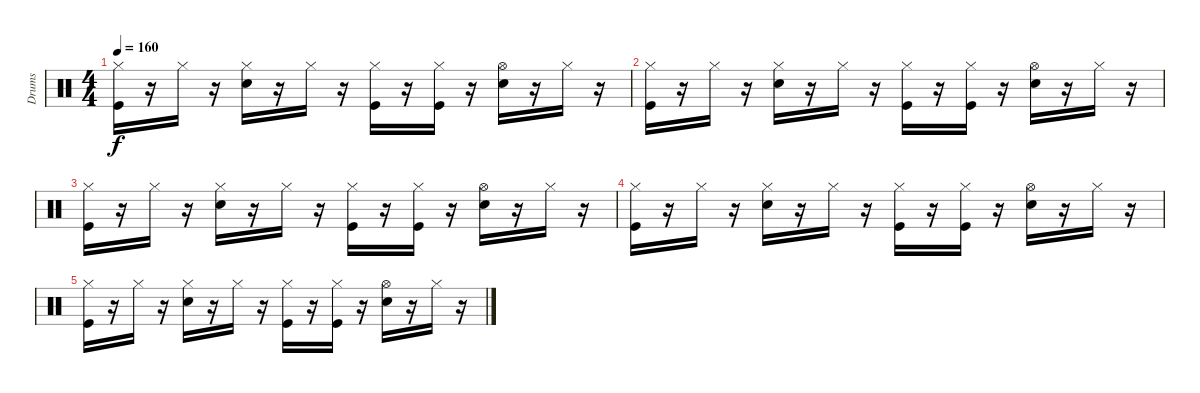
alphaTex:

\track ("Drums" "Drums") {instrument percussion}
\staff {score}
\articulation defaults
\ts (4 4)
\tempo 160
\clef neutral
\ks c
("Hi-Hat (closed)" "Kick (hit)").16{dy f} r.16 "Hi-Hat (closed)".16 r.16 ("Hi-Hat (closed)" "Snare (hit) 2").16 r.16 "Hi-Hat (closed)".16 r.16 ("Hi-Hat (closed)" "Kick (hit)").16 r.16 ("Kick (hit)" "Hi-Hat (closed)").16 r.16 ("Hi-Hat (open)" "Snare (hit) 2").16 r.16 "Hi-Hat (closed)".16 r.16 |
("Hi-Hat (closed)" "Kick (hit)").16{volume 4} r.16 "Hi-Hat (closed)".16 r.16 ("Hi-Hat (closed)" "Snare (hit) 2").16 r.16 "Hi-Hat (closed)".16 r.16 ("Hi-Hat (closed)" "Kick (hit)").16 r.16 ("Kick (hit)" "Hi-Hat (closed)").16 r.16 ("Hi-Hat (open)" "Snare (hit) 2").16 r.16 "Hi-Hat (closed)".16 r.16 |
("Hi-Hat (closed)" "Kick (hit)").16 r.16 "Hi-Hat (closed)".16 r.16 ("Hi-Hat (closed)" "Snare (hit) 2").16 r.16 "Hi-Hat (closed)".16 r.16 ("Hi-Hat (closed)" "Kick (hit)").16 r.16 ("Kick (hit)" "Hi-Hat (closed)").16 r.16 ("Hi-Hat (open)" "Snare (hit) 2").16 r.16 "Hi-Hat (closed)".16 r.16 |
("Hi-Hat (closed)" "Kick (hit)").16{volume 2} r.16 "Hi-Hat (closed)".16 r.16 ("Hi-Hat (closed)" "Snare (hit) 2").16 r.16 "Hi-Hat (closed)".16 r.16 ("Hi-Hat (closed)" "Kick (hit)").16 r.16 ("Kick (hit)" "Hi-Hat (closed)").16 r.16 ("Hi-Hat (open)" "Snare (hit) 2").16 r.16 "Hi-Hat (closed)".16 r.16 |
("Hi-Hat (closed)" "Kick (hit)").16 r.16 "Hi-Hat (closed)".16 r.16 ("Hi-Hat (closed)" "Snare (hit) 2").16 r.16 "Hi-Hat (closed)".16 r.16 ("Hi-Hat (closed)" "Kick (hit)").16 r.16 ("Kick (hit)" "Hi-Hat (closed)").16 r.16 ("Hi-Hat (open)" "Snare (hit) 2").16 r.16 "Hi-Hat (closed)".16 r.16
